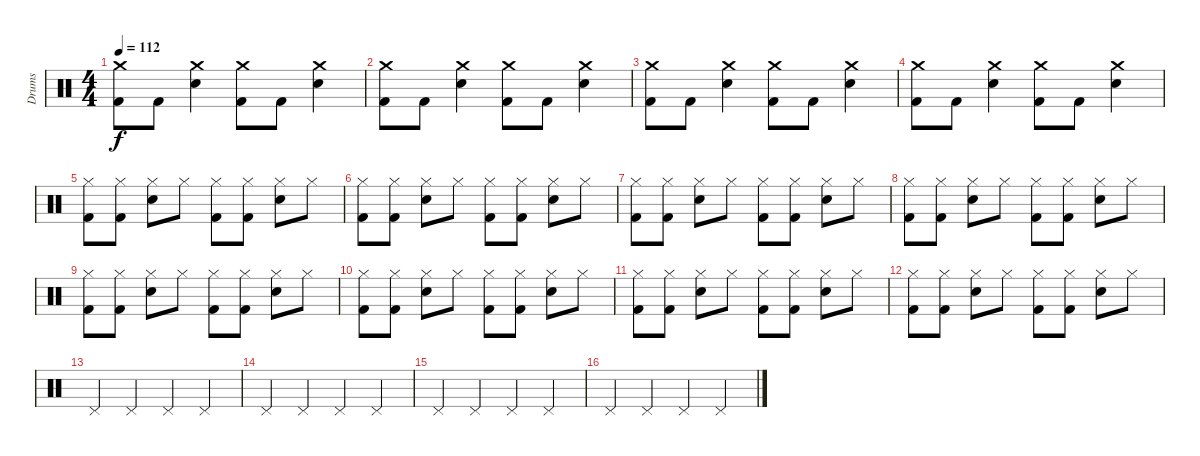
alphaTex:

\track ("Drums" "Drums") {instrument percussion}
\staff {score}
\articulation defaults
\ts (4 4)
\tempo 112
\clef neutral
\ks c
("Crash medium (hit)" "Kick (hit) 2").8{dy f} "Kick (hit) 2".8 ("Crash medium (hit)" "Snare (hit) 2").4 ("Crash medium (hit)" "Kick (hit) 2").8 "Kick (hit) 2".8 ("Crash medium (hit)" "Snare (hit) 2").4 |
("Crash medium (hit)" "Kick (hit) 2").8 "Kick (hit) 2".8 ("Crash medium (hit)" "Snare (hit) 2").4 ("Crash medium (hit)" "Kick (hit) 2").8 "Kick (hit) 2".8 ("Crash medium (hit)" "Snare (hit) 2").4 |
("Crash medium (hit)" "Kick (hit) 2").8 "Kick (hit) 2".8 ("Crash medium (hit)" "Snare (hit) 2").4 ("Crash medium (hit)" "Kick (hit) 2").8 "Kick (hit) 2".8 ("Crash medium (hit)" "Snare (hit) 2").4 |
("Crash medium (hit)" "Kick (hit) 2").8 "Kick (hit) 2".8 ("Crash medium (hit)" "Snare (hit) 2").4 ("Crash medium (hit)" "Kick (hit) 2").8 "Kick (hit) 2".8 ("Crash medium (hit)" "Snare (hit) 2").4 |
("Hi-Hat (closed)" "Kick (hit) 2").8 ("Hi-Hat (closed)" "Kick (hit) 2").8 ("Hi-Hat (closed)" "Snare (hit) 2").8 "Hi-Hat (closed)".8 ("Hi-Hat (closed)" "Kick (hit) 2").8 ("Hi-Hat (closed)" "Kick (hit) 2").8 ("Hi-Hat (closed)" "Snare (hit) 2").8 "Hi-Hat (closed)".8 |
("Hi-Hat (closed)" "Kick (hit) 2").8 ("Hi-Hat (closed)" "Kick (hit) 2").8 ("Hi-Hat (closed)" "Snare (hit) 2").8 "Hi-Hat (closed)".8 ("Hi-Hat (closed)" "Kick (hit) 2").8 ("Hi-Hat (closed)" "Kick (hit) 2").8 ("Hi-Hat (closed)" "Snare (hit) 2").8 "Hi-Hat (closed)".8 |
("Hi-Hat (closed)" "Kick (hit) 2").8 ("Hi-Hat (closed)" "Kick (hit) 2").8 ("Hi-Hat (closed)" "Snare (hit) 2").8 "Hi-Hat (closed)".8 ("Hi-Hat (closed)" "Kick (hit) 2").8 ("Hi-Hat (closed)" "Kick (hit) 2").8 ("Hi-Hat (closed)" "Snare (hit) 2").8 "Hi-Hat (closed)".8 |
("Hi-Hat (closed)" "Kick (hit) 2").8 ("Hi-Hat (closed)" "Kick (hit) 2").8 ("Hi-Hat (closed)" "Snare (hit) 2").8 "Hi-Hat (closed)".8 ("Hi-Hat (closed)" "Kick (hit) 2").8 ("Hi-Hat (closed)" "Kick (hit) 2").8 ("Hi-Hat (closed)" "Snare (hit) 2").8 "Hi-Hat (closed)".8 |
("Hi-Hat (closed)" "Kick (hit) 2").8 ("Hi-Hat (closed)" "Kick (hit) 2").8 ("Hi-Hat (closed)" "Snare (hit) 2").8 "Hi-Hat (closed)".8 ("Hi-Hat (closed)" "Kick (hit) 2").8 ("Hi-Hat (closed)" "Kick (hit) 2").8 ("Hi-Hat (closed)" "Snare (hit) 2").8 "Hi-Hat (closed)".8 |
("Hi-Hat (closed)" "Kick (hit) 2").8 ("Hi-Hat (closed)" "Kick (hit) 2").8 ("Hi-Hat (closed)" "Snare (hit) 2").8 "Hi-Hat (closed)".8 ("Hi-Hat (closed)" "Kick (hit) 2").8 ("Hi-Hat (closed)" "Kick (hit) 2").8 ("Hi-Hat (closed)" "Snare (hit) 2").8 "Hi-Hat (closed)".8 |
("Hi-Hat (closed)" "Kick (hit) 2").8 ("Hi-Hat (closed)" "Kick (hit) 2").8 ("Hi-Hat (closed)" "Snare (hit) 2").8 "Hi-Hat (closed)".8 ("Hi-Hat (closed)" "Kick (hit) 2").8 ("Hi-Hat (closed)" "Kick (hit) 2").8 ("Hi-Hat (closed)" "Snare (hit) 2").8 "Hi-Hat (closed)".8 |
("Hi-Hat (closed)" "Kick (hit) 2").8 ("Hi-Hat (closed)" "Kick (hit) 2").8 ("Hi-Hat (closed)" "Snare (hit) 2").8 "Hi-Hat (closed)".8 ("Hi-Hat (closed)" "Kick (hit) 2").8 ("Hi-Hat (closed)" "Kick (hit) 2").8 ("Hi-Hat (closed)" "Snare (hit) 2").8 "Hi-Hat (closed)".8 |
"Pedal Hi-Hat (hit)".4 "Pedal Hi-Hat (hit)".4 "Pedal Hi-Hat (hit)".4 "Pedal Hi-Hat (hit)".4 |
"Pedal Hi-Hat (hit)".4 "Pedal Hi-Hat (hit)".4 "Pedal Hi-Hat (hit)".4 "Pedal Hi-Hat (hit)".4 |
"Pedal Hi-Hat (hit)".4 "Pedal Hi-Hat (hit)".4 "Pedal Hi-Hat (hit)".4 "Pedal Hi-Hat (hit)".4 |
"Pedal Hi-Hat (hit)".4 "Pedal Hi-Hat (hit)".4 "Pedal Hi-Hat (hit)".4 "Pedal Hi-Hat (hit)".4
